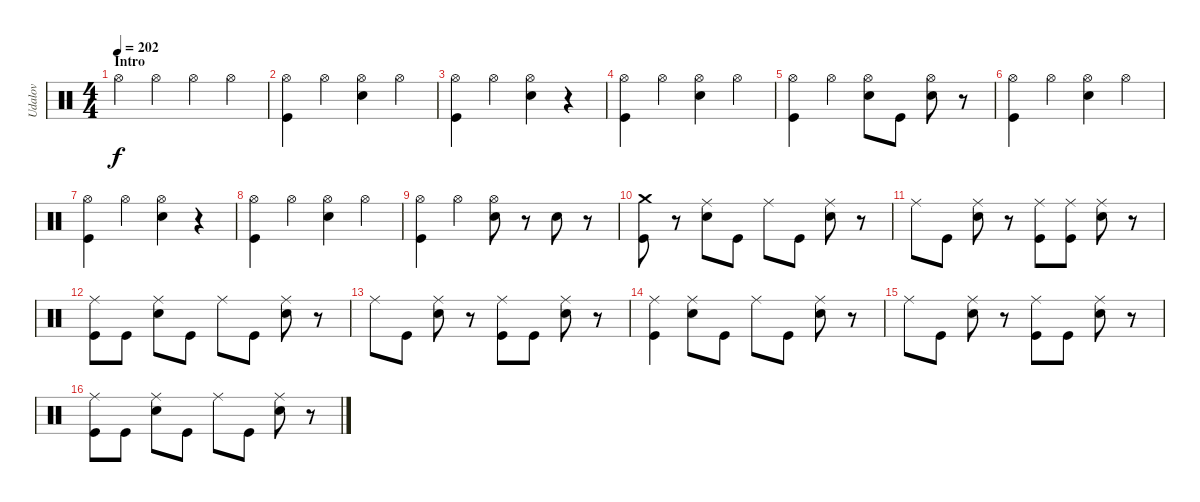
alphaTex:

\track ("Udalov" "Udalov") {instrument percussion}
\staff {score}
\articulation defaults
\ts (4 4)
\section ("" "Intro")
\tempo 202
\clef neutral
\ks c "Hi-Hat (open)".4{dy f} "Hi-Hat (open)".4 "Hi-Hat (open)".4 "Hi-Hat (open)".4
|
("Kick (hit)" "Hi-Hat (open)").4 "Hi-Hat (open)".4 ("Electric Snare (hit)" "Hi-Hat (open)").4 "Hi-Hat (open)".4 |
("Kick (hit)" "Hi-Hat (open)").4 "Hi-Hat (open)".4 ("Electric Snare (hit)" "Hi-Hat (open)").4 r.4 |
("Kick (hit)" "Hi-Hat (open)").4 "Hi-Hat (open)".4 ("Electric Snare (hit)" "Hi-Hat (open)").4 "Hi-Hat (open)".4 |
("Kick (hit)" "Hi-Hat (open)").4 "Hi-Hat (open)".4 ("Electric Snare (hit)" "Hi-Hat (open)").8 "Kick (hit)".8 ("Electric Snare (hit)" "Hi-Hat (open)").8 r.8 |
("Kick (hit)" "Hi-Hat (open)").4 "Hi-Hat (open)".4 ("Electric Snare (hit)" "Hi-Hat (open)").4 "Hi-Hat (open)".4 |
("Kick (hit)" "Hi-Hat (open)").4 "Hi-Hat (open)".4 ("Electric Snare (hit)" "Hi-Hat (open)").4 r.4 |
("Kick (hit)" "Hi-Hat (open)").4 "Hi-Hat (open)".4 ("Electric Snare (hit)" "Hi-Hat (open)").4 "Hi-Hat (open)".4 |
("Kick (hit)" "Hi-Hat (open)").4 "Hi-Hat (open)".4 ("Electric Snare (hit)" "Hi-Hat (open)").8 r.8 "Electric Snare (hit)".8 r.8 |
("Kick (hit)" "Crash medium (hit)").8 r.8 ("Electric Snare (hit)" "Ride (middle)").8 "Kick (hit)".8 "Ride (middle)".8 "Kick (hit)".8 ("Electric Snare (hit)" "Ride (middle)").8 r.8 |
"Ride (middle)".8 "Kick (hit)".8 ("Electric Snare (hit)" "Ride (middle)").8 r.8 ("Kick (hit)" "Ride (middle)").8 ("Kick (hit)" "Ride (middle)").8 ("Electric Snare (hit)" "Ride (middle)").8 r.8 |
("Kick (hit)" "Ride (middle)").8 "Kick (hit)".8 ("Electric Snare (hit)" "Ride (middle)").8 "Kick (hit)".8 "Ride (middle)".8 "Kick (hit)".8 ("Electric Snare (hit)" "Ride (middle)").8 r.8 |
"Ride (middle)".8 "Kick (hit)".8 ("Electric Snare (hit)" "Ride (middle)").8 r.8 ("Kick (hit)" "Ride (middle)").8 "Kick (hit)".8 ("Electric Snare (hit)" "Ride (middle)").8 r.8 |
("Kick (hit)" "Ride (middle)").4 ("Electric Snare (hit)" "Ride (middle)").8 "Kick (hit)".8 "Ride (middle)".8 "Kick (hit)".8 ("Electric Snare (hit)" "Ride (middle)").8 r.8 |
"Ride (middle)".8 "Kick (hit)".8 ("Electric Snare (hit)" "Ride (middle)").8 r.8 ("Kick (hit)" "Ride (middle)").8 "Kick (hit)".8 ("Electric Snare (hit)" "Ride (middle)").8 r.8 |
("Kick (hit)" "Ride (middle)").8 "Kick (hit)".8 ("Electric Snare (hit)" "Ride (middle)").8 "Kick (hit)".8 "Ride (middle)".8 "Kick (hit)".8 ("Electric Snare (hit)" "Ride (middle)").8 r.8
